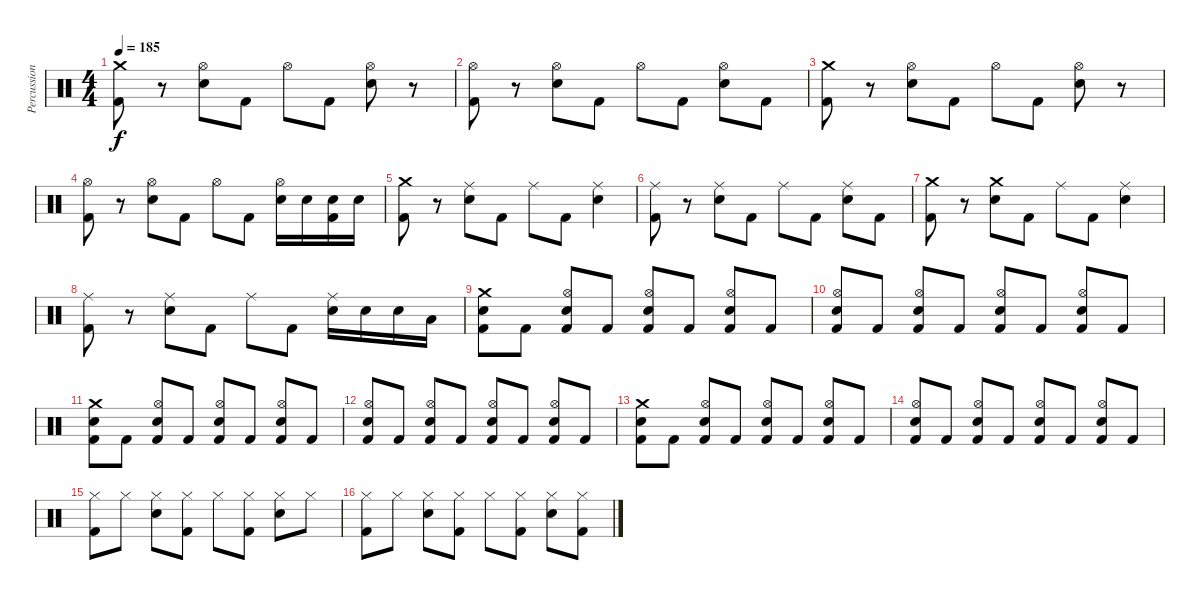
\track ("Percussions" "Percussion") {instrument percussion}
\staff {score}
\articulation defaults
\ts (4 4)
\tempo 185
\clef neutral
\ks c
("Crash medium (hit)" "Kick (hit) 2").8{dy f} r.8 ("Hi-Hat (open)" "Electric Snare (hit)").8 "Kick (hit) 2".8 "Hi-Hat (open)".8 "Kick (hit) 2".8 ("Hi-Hat (open)" "Electric Snare (hit)").8 r.8 |
("Hi-Hat (open)" "Kick (hit) 2").8 r.8 ("Hi-Hat (open)" "Electric Snare (hit)").8 "Kick (hit) 2".8 "Hi-Hat (open)".8 "Kick (hit) 2".8 ("Hi-Hat (open)" "Electric Snare (hit)").8 "Kick (hit) 2".8 |
("Crash medium (hit)" "Kick (hit) 2").8 r.8 ("Hi-Hat (open)" "Electric Snare (hit)").8 "Kick (hit) 2".8 "Hi-Hat (open)".8 "Kick (hit) 2".8 ("Hi-Hat (open)" "Electric Snare (hit)").8 r.8 |
("Hi-Hat (open)" "Kick (hit) 2").8 r.8 ("Hi-Hat (open)" "Electric Snare (hit)").8 "Kick (hit) 2".8 "Hi-Hat (open)".8 "Kick (hit) 2".8 ("Hi-Hat (open)" "Electric Snare (hit)").16 "Electric Snare (hit)".16 ("Electric Snare (hit)" "Kick (hit) 2").16 "Electric Snare (hit)".16 |
("Crash medium (hit)" "Kick (hit) 2").8 r.8 ("Ride (middle)" "Electric Snare (hit)").8 "Kick (hit) 2".8 "Ride (middle)".8 "Kick (hit) 2".8 ("Ride (middle)" "Electric Snare (hit)").4 |
("Ride (middle)" "Kick (hit) 2").8 r.8 ("Ride (middle)" "Electric Snare (hit)").8 "Kick (hit) 2".8 "Ride (middle)".8 "Kick (hit) 2".8 ("Ride (middle)" "Electric Snare (hit)").8 "Kick (hit) 2".8 |
("Crash medium (hit)" "Kick (hit) 2").8 r.8 ("Crash medium (hit)" "Electric Snare (hit)").8 "Kick (hit) 2".8 "Ride (middle)".8 "Kick (hit) 2".8 ("Ride (middle)" "Electric Snare (hit)").4 |
("Ride (middle)" "Kick (hit) 2").8 r.8 ("Ride (middle)" "Electric Snare (hit)").8 "Kick (hit) 2".8 "Ride (middle)".8 "Kick (hit) 2".8 ("Ride (middle)" "Electric Snare (hit)").16 "Electric Snare (hit)".16 "Electric Snare (hit)".16 "Low Tom (hit)".16 |
("Crash medium (hit)" "Electric Snare (hit)" "Kick (hit) 2").8 "Kick (hit) 2".8 ("Hi-Hat (open)" "Electric Snare (hit)" "Kick (hit) 2").8 "Kick (hit) 2".8 ("Hi-Hat (open)" "Electric Snare (hit)" "Kick (hit) 2").8 "Kick (hit) 2".8 ("Hi-Hat (open)" "Electric Snare (hit)" "Kick (hit) 2").8 "Kick (hit) 2".8 |
("Hi-Hat (open)" "Electric Snare (hit)" "Kick (hit) 2").8 "Kick (hit) 2".8 ("Hi-Hat (open)" "Electric Snare (hit)" "Kick (hit) 2").8 "Kick (hit) 2".8 ("Hi-Hat (open)" "Electric Snare (hit)" "Kick (hit) 2").8 "Kick (hit) 2".8 ("Hi-Hat (open)" "Electric Snare (hit)" "Kick (hit) 2").8 "Kick (hit) 2".8 |
("Crash medium (hit)" "Electric Snare (hit)" "Kick (hit) 2").8 "Kick (hit) 2".8 ("Hi-Hat (open)" "Electric Snare (hit)" "Kick (hit) 2").8 "Kick (hit) 2".8 ("Hi-Hat (open)" "Electric Snare (hit)" "Kick (hit) 2").8 "Kick (hit) 2".8 ("Hi-Hat (open)" "Electric Snare (hit)" "Kick (hit) 2").8 "Kick (hit) 2".8 |
("Hi-Hat (open)" "Electric Snare (hit)" "Kick (hit) 2").8 "Kick (hit) 2".8 ("Hi-Hat (open)" "Electric Snare (hit)" "Kick (hit) 2").8 "Kick (hit) 2".8 ("Hi-Hat (open)" "Electric Snare (hit)" "Kick (hit) 2").8 "Kick (hit) 2".8 ("Hi-Hat (open)" "Electric Snare (hit)" "Kick (hit) 2").8 "Kick (hit) 2".8 |
("Crash medium (hit)" "Electric Snare (hit)" "Kick (hit) 2").8 "Kick (hit) 2".8 ("Hi-Hat (open)" "Electric Snare (hit)" "Kick (hit) 2").8 "Kick (hit) 2".8 ("Hi-Hat (open)" "Electric Snare (hit)" "Kick (hit) 2").8 "Kick (hit) 2".8 ("Hi-Hat (open)" "Electric Snare (hit)" "Kick (hit) 2").8 "Kick (hit) 2".8 |
("Hi-Hat (open)" "Electric Snare (hit)" "Kick (hit) 2").8 "Kick (hit) 2".8 ("Hi-Hat (open)" "Electric Snare (hit)" "Kick (hit) 2").8 "Kick (hit) 2".8 ("Hi-Hat (open)" "Electric Snare (hit)" "Kick (hit) 2").8 "Kick (hit) 2".8 ("Hi-Hat (open)" "Electric Snare (hit)" "Kick (hit) 2").8 "Kick (hit) 2".8 |
("Hi-Hat (closed)" "Kick (hit) 2").8 "Hi-Hat (closed)".8 ("Hi-Hat (closed)" "Electric Snare (hit)").8 ("Hi-Hat (closed)" "Kick (hit) 2").8 "Hi-Hat (closed)".8 ("Hi-Hat (closed)" "Kick (hit) 2").8 ("Hi-Hat (closed)" "Electric Snare (hit)").8 "Hi-Hat (closed)".8 |
("Hi-Hat (closed)" "Kick (hit) 2").8 "Hi-Hat (closed)".8 ("Hi-Hat (closed)" "Electric Snare (hit)").8 ("Hi-Hat (closed)" "Kick (hit) 2").8 "Hi-Hat (closed)".8 ("Hi-Hat (closed)" "Kick (hit) 2").8 ("Hi-Hat (closed)" "Electric Snare (hit)").8 ("Hi-Hat (closed)" "Kick (hit) 2").8
